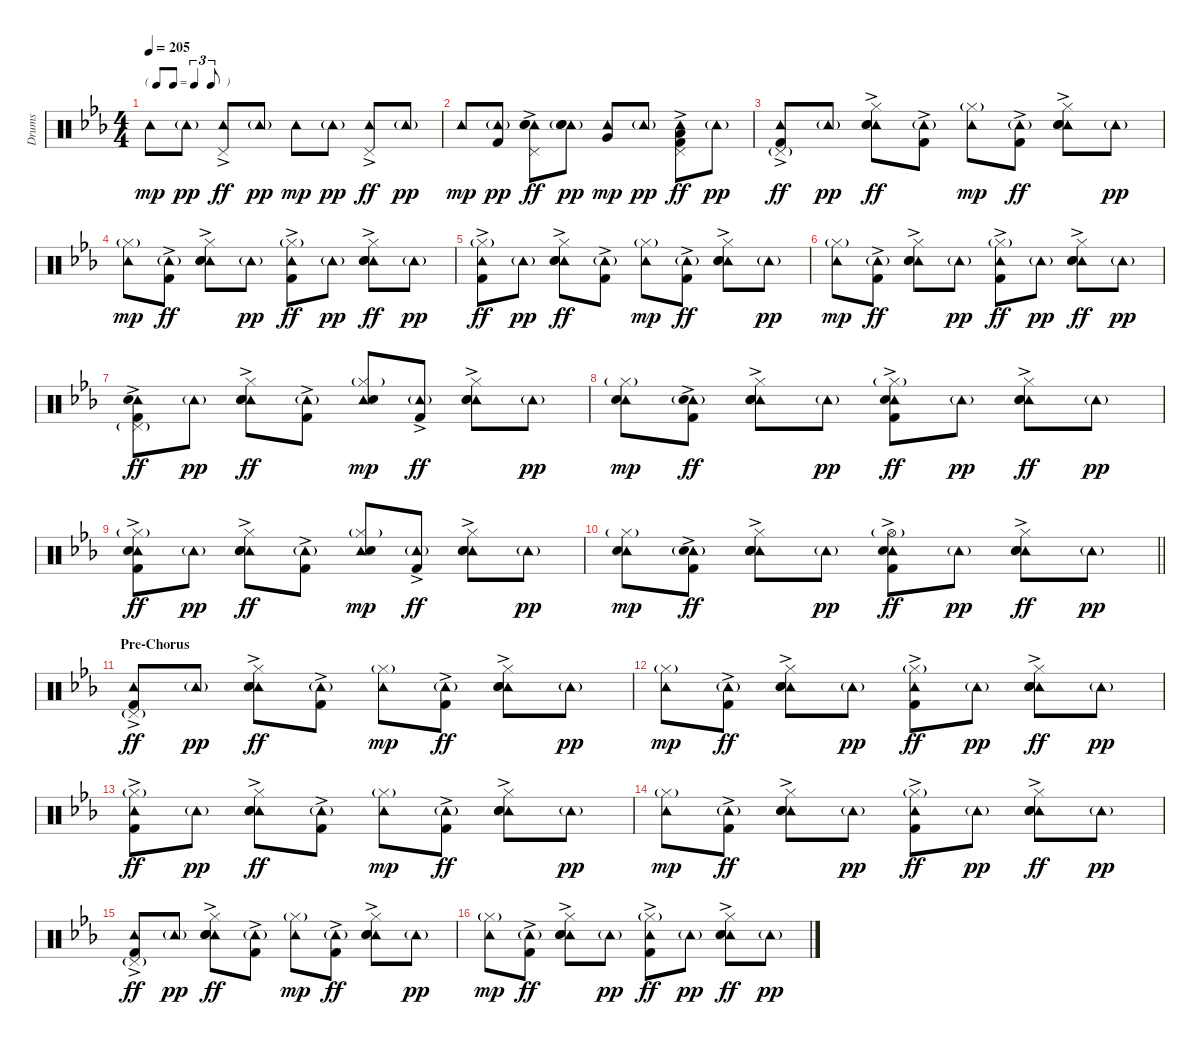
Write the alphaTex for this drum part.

\track ("Drums" "Drums") {instrument percussion}
\staff {score}
\articulation defaults
\ts (4 4)
\tf triplet8th
\tempo 205
\clef neutral
\ks eb "Tambourine (hit)".8{dy mp} "Tambourine (hit)"{g}.8{dy pp}
("Pedal Hi-Hat (hit)" "Tambourine (hit)"{ac}).8{dy ff} "Tambourine (hit)"{g}.8{dy pp} "Tambourine (hit)".8{dy mp} "Tambourine (hit)"{g}.8{dy pp} ("Pedal Hi-Hat (hit)" "Tambourine (hit)"{ac}).8{dy ff} "Tambourine (hit)"{g}.8{dy pp} |
"Tambourine (hit)".8{dy mp} ("Tambourine (hit)"{g} "Kick (hit) 2").8{dy pp} ("Pedal Hi-Hat (hit)" "Tambourine (hit)"{ac} "Electric Snare (hit)" "Snare (hit) 2").8{dy ff} ("Tambourine (hit)"{g} "Electric Snare (hit)" "Snare (hit) 2").8{dy pp} ("Tambourine (hit)" "Very Low Tom (hit)").8{dy mp} "Tambourine (hit)"{g}.8{dy pp} ("Pedal Hi-Hat (hit)" "Tambourine (hit)"{ac} "Low Floor Tom (hit)" "Kick (hit) 2").8{dy ff} "Tambourine (hit)"{g}.8{dy pp} |
("Pedal Hi-Hat (hit)"{g} "Tambourine (hit)" "Kick (hit) 2"{ac}).8{dy ff} "Tambourine (hit)"{g}.8{dy pp} ("Hi-Hat (closed)" "Tambourine (hit)"{ac} "Electric Snare (hit)"{ac} "Snare (hit) 2").8{dy ff} ("Tambourine (hit)"{g} "Kick (hit) 2"{ac}).8 ("Hi-Hat (closed)"{g} "Tambourine (hit)").8{dy mp} ("Tambourine (hit)"{g} "Kick (hit) 2"{ac}).8{dy ff} ("Hi-Hat (closed)" "Tambourine (hit)"{ac} "Electric Snare (hit)"{ac} "Snare (hit) 2").8 "Tambourine (hit)"{g}.8{dy pp} |
("Hi-Hat (closed)"{g} "Tambourine (hit)").8{dy mp} ("Tambourine (hit)"{g} "Kick (hit) 2"{ac}).8{dy ff} ("Hi-Hat (closed)" "Tambourine (hit)"{ac} "Electric Snare (hit)"{ac} "Snare (hit) 2").8 "Tambourine (hit)"{g}.8{dy pp} ("Hi-Hat (closed)"{g} "Tambourine (hit)" "Kick (hit) 2"{ac}).8{dy ff} "Tambourine (hit)"{g}.8{dy pp} ("Hi-Hat (closed)" "Tambourine (hit)"{ac} "Electric Snare (hit)"{ac} "Snare (hit) 2").8{dy ff} "Tambourine (hit)"{g}.8{dy pp} |
("Hi-Hat (closed)"{g} "Tambourine (hit)" "Kick (hit) 2"{ac}).8{dy ff} "Tambourine (hit)"{g}.8{dy pp} ("Hi-Hat (closed)" "Tambourine (hit)"{ac} "Electric Snare (hit)"{ac} "Snare (hit) 2").8{dy ff} ("Tambourine (hit)"{g} "Kick (hit) 2"{ac}).8 ("Hi-Hat (closed)"{g} "Tambourine (hit)").8{dy mp} ("Tambourine (hit)"{g} "Kick (hit) 2"{ac}).8{dy ff} ("Hi-Hat (closed)" "Tambourine (hit)"{ac} "Electric Snare (hit)"{ac} "Snare (hit) 2").8 "Tambourine (hit)"{g}.8{dy pp} |
("Hi-Hat (closed)"{g} "Tambourine (hit)").8{dy mp} ("Tambourine (hit)"{g} "Kick (hit) 2"{ac}).8{dy ff} ("Hi-Hat (closed)" "Tambourine (hit)"{ac} "Electric Snare (hit)"{ac} "Snare (hit) 2").8 "Tambourine (hit)"{g}.8{dy pp} ("Hi-Hat (closed)"{g} "Tambourine (hit)" "Kick (hit) 2"{ac}).8{dy ff} "Tambourine (hit)"{g}.8{dy pp} ("Hi-Hat (closed)" "Tambourine (hit)"{ac} "Electric Snare (hit)"{ac} "Snare (hit) 2").8{dy ff} "Tambourine (hit)"{g}.8{dy pp} |
("Pedal Hi-Hat (hit)"{g} "Tambourine (hit)" "Hand Clap (hit)" "Kick (hit) 2"{ac}).8{dy ff} "Tambourine (hit)"{g}.8{dy pp} ("Hi-Hat (closed)" "Tambourine (hit)"{ac} "Electric Snare (hit)"{ac} "Snare (hit) 2").8{dy ff} ("Tambourine (hit)"{g} "Kick (hit) 2"{ac}).8 ("Hi-Hat (closed)"{g} "Tambourine (hit)" "Hand Clap (hit)").8{dy mp} ("Tambourine (hit)"{g} "Kick (hit) 2"{ac}).8{dy ff} ("Hi-Hat (closed)" "Tambourine (hit)"{ac} "Electric Snare (hit)"{ac} "Snare (hit) 2").8 "Tambourine (hit)"{g}.8{dy pp} |
("Hi-Hat (closed)"{g} "Tambourine (hit)" "Hand Clap (hit)").8{dy mp} ("Tambourine (hit)"{g} "Hand Clap (hit)" "Kick (hit) 2"{ac}).8{dy ff} ("Hi-Hat (closed)" "Tambourine (hit)"{ac} "Hand Clap (hit)" "Electric Snare (hit)"{ac} "Snare (hit) 2").8 "Tambourine (hit)"{g}.8{dy pp} ("Hi-Hat (closed)"{g} "Tambourine (hit)" "Hand Clap (hit)" "Kick (hit) 2"{ac}).8{dy ff} "Tambourine (hit)"{g}.8{dy pp} ("Hi-Hat (closed)" "Tambourine (hit)"{ac} "Electric Snare (hit)"{ac} "Snare (hit) 2").8{dy ff} "Tambourine (hit)"{g}.8{dy pp} |
("Hi-Hat (closed)"{g} "Tambourine (hit)" "Hand Clap (hit)" "Kick (hit) 2"{ac}).8{dy ff} "Tambourine (hit)"{g}.8{dy pp} ("Hi-Hat (closed)" "Tambourine (hit)"{ac} "Electric Snare (hit)"{ac} "Snare (hit) 2").8{dy ff} ("Tambourine (hit)"{g} "Kick (hit) 2"{ac}).8 ("Hi-Hat (closed)"{g} "Tambourine (hit)" "Hand Clap (hit)").8{dy mp} ("Tambourine (hit)"{g} "Kick (hit) 2"{ac}).8{dy ff} ("Hi-Hat (closed)" "Tambourine (hit)"{ac} "Electric Snare (hit)"{ac} "Snare (hit) 2").8 "Tambourine (hit)"{g}.8{dy pp} |
\barLineRight lightlight
("Hi-Hat (closed)"{g} "Tambourine (hit)" "Hand Clap (hit)").8{dy mp} ("Tambourine (hit)"{g} "Hand Clap (hit)" "Kick (hit) 2"{ac}).8{dy ff} ("Hi-Hat (closed)" "Tambourine (hit)"{ac} "Hand Clap (hit)" "Electric Snare (hit)"{ac} "Snare (hit) 2").8 "Tambourine (hit)"{g}.8{dy pp} ("Hi-Hat (open)"{g} "Tambourine (hit)" "Hand Clap (hit)" "Kick (hit) 2"{ac}).8{dy ff} "Tambourine (hit)"{g}.8{dy pp} ("Hi-Hat (closed)" "Tambourine (hit)"{ac} "Electric Snare (hit)"{ac} "Snare (hit) 2").8{dy ff} "Tambourine (hit)"{g}.8{dy pp} |
\section ("" "Pre-Chorus")
("Pedal Hi-Hat (hit)"{g} "Tambourine (hit)" "Kick (hit) 2"{ac}).8{dy ff} "Tambourine (hit)"{g}.8{dy pp} ("Hi-Hat (closed)" "Tambourine (hit)"{ac} "Electric Snare (hit)"{ac} "Snare (hit) 2").8{dy ff} ("Tambourine (hit)"{g} "Kick (hit) 2"{ac}).8 ("Hi-Hat (closed)"{g} "Tambourine (hit)").8{dy mp} ("Tambourine (hit)"{g} "Kick (hit) 2"{ac}).8{dy ff} ("Hi-Hat (closed)" "Tambourine (hit)"{ac} "Electric Snare (hit)"{ac} "Snare (hit) 2").8 "Tambourine (hit)"{g}.8{dy pp} |
("Hi-Hat (closed)"{g} "Tambourine (hit)").8{dy mp} ("Tambourine (hit)"{g} "Kick (hit) 2"{ac}).8{dy ff} ("Hi-Hat (closed)" "Tambourine (hit)"{ac} "Electric Snare (hit)"{ac} "Snare (hit) 2").8 "Tambourine (hit)"{g}.8{dy pp} ("Hi-Hat (closed)"{g} "Tambourine (hit)" "Kick (hit) 2"{ac}).8{dy ff} "Tambourine (hit)"{g}.8{dy pp} ("Hi-Hat (closed)" "Tambourine (hit)"{ac} "Electric Snare (hit)"{ac} "Snare (hit) 2").8{dy ff} "Tambourine (hit)"{g}.8{dy pp} |
("Hi-Hat (closed)"{g} "Tambourine (hit)" "Kick (hit) 2"{ac}).8{dy ff} "Tambourine (hit)"{g}.8{dy pp} ("Hi-Hat (closed)" "Tambourine (hit)"{ac} "Electric Snare (hit)"{ac} "Snare (hit) 2").8{dy ff} ("Tambourine (hit)"{g} "Kick (hit) 2"{ac}).8 ("Hi-Hat (closed)"{g} "Tambourine (hit)").8{dy mp} ("Tambourine (hit)"{g} "Kick (hit) 2"{ac}).8{dy ff} ("Hi-Hat (closed)" "Tambourine (hit)"{ac} "Electric Snare (hit)"{ac} "Snare (hit) 2").8 "Tambourine (hit)"{g}.8{dy pp} |
("Hi-Hat (closed)"{g} "Tambourine (hit)").8{dy mp} ("Tambourine (hit)"{g} "Kick (hit) 2"{ac}).8{dy ff} ("Hi-Hat (closed)" "Tambourine (hit)"{ac} "Electric Snare (hit)"{ac} "Snare (hit) 2").8 "Tambourine (hit)"{g}.8{dy pp} ("Hi-Hat (closed)"{g} "Tambourine (hit)" "Kick (hit) 2"{ac}).8{dy ff} "Tambourine (hit)"{g}.8{dy pp} ("Hi-Hat (closed)" "Tambourine (hit)"{ac} "Electric Snare (hit)"{ac} "Snare (hit) 2").8{dy ff} "Tambourine (hit)"{g}.8{dy pp} |
("Pedal Hi-Hat (hit)"{g} "Tambourine (hit)" "Kick (hit) 2"{ac}).8{dy ff} "Tambourine (hit)"{g}.8{dy pp} ("Hi-Hat (closed)" "Tambourine (hit)"{ac} "Electric Snare (hit)"{ac} "Snare (hit) 2").8{dy ff} ("Tambourine (hit)"{g} "Kick (hit) 2"{ac}).8 ("Hi-Hat (closed)"{g} "Tambourine (hit)").8{dy mp} ("Tambourine (hit)"{g} "Kick (hit) 2"{ac}).8{dy ff} ("Hi-Hat (closed)" "Tambourine (hit)"{ac} "Electric Snare (hit)"{ac} "Snare (hit) 2").8 "Tambourine (hit)"{g}.8{dy pp} |
("Hi-Hat (closed)"{g} "Tambourine (hit)").8{dy mp} ("Tambourine (hit)"{g} "Kick (hit) 2"{ac}).8{dy ff} ("Hi-Hat (closed)" "Tambourine (hit)"{ac} "Electric Snare (hit)"{ac} "Snare (hit) 2").8 "Tambourine (hit)"{g}.8{dy pp} ("Hi-Hat (closed)"{g} "Tambourine (hit)" "Kick (hit) 2"{ac}).8{dy ff} "Tambourine (hit)"{g}.8{dy pp} ("Hi-Hat (closed)" "Tambourine (hit)"{ac} "Electric Snare (hit)"{ac} "Snare (hit) 2").8{dy ff} "Tambourine (hit)"{g}.8{dy pp}
